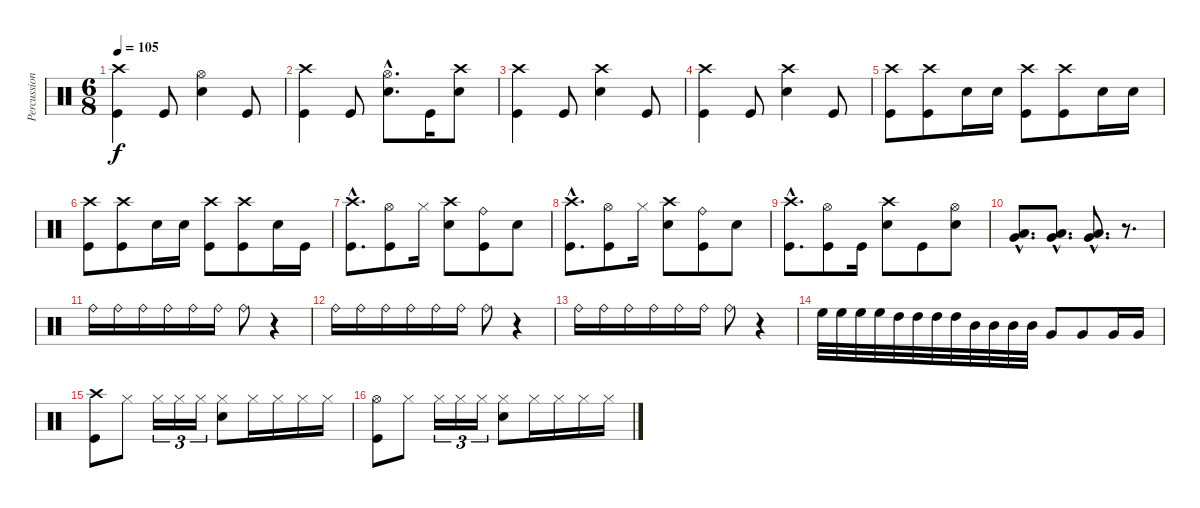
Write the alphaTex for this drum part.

\track ("Percussion" "Percussion") {instrument percussion}
\staff {score}
\articulation defaults
\ts (6 8)
\tempo 105
\clef neutral
\ks c
("Crash high (hit)" "Kick (hit)").4{dy f} "Kick (hit)".8 ("Hi-Hat (open)" "Electric Snare (hit)").4 "Kick (hit)".8 |
("Crash high (hit)" "Kick (hit)").4 "Kick (hit)".8 ("Hi-Hat (open)"{hac} "Electric Snare (hit)"{hac}).8{d} "Kick (hit)".16 ("Crash high (hit)" "Electric Snare (hit)").8 |
("Crash high (hit)" "Kick (hit)").4 "Kick (hit)".8 ("Crash high (hit)" "Electric Snare (hit)").4 "Kick (hit)".8 |
("Crash high (hit)" "Kick (hit)").4 "Kick (hit)".8 ("Crash high (hit)" "Electric Snare (hit)").4 "Kick (hit)".8 |
("Crash high (hit)" "Kick (hit)").8 ("Crash high (hit)" "Kick (hit)").8 "Electric Snare (hit)".16 "Electric Snare (hit)".16 ("Crash high (hit)" "Kick (hit)").8 ("Crash high (hit)" "Kick (hit)").8 "Electric Snare (hit)".16 "Electric Snare (hit)".16 |
("Crash high (hit)" "Kick (hit)").8 ("Crash high (hit)" "Kick (hit)").8 "Electric Snare (hit)".16 "Electric Snare (hit)".16 ("Crash high (hit)" "Kick (hit)").8 ("Crash high (hit)" "Kick (hit)").8 "Electric Snare (hit)".16 "Kick (hit)".16 |
("Crash high (hit)"{hac} "Kick (hit)"{hac}).8{d} ("Hi-Hat (open)" "Kick (hit)").8 "Hi-Hat (closed)".16 ("Crash high (hit)" "Electric Snare (hit)").8 ("Ride (bell)" "Kick (hit)").8 "Electric Snare (hit)".8 |
("Crash high (hit)"{hac} "Kick (hit)"{hac}).8{d} ("Hi-Hat (open)" "Kick (hit)").8 "Hi-Hat (closed)".16 ("Crash high (hit)" "Electric Snare (hit)").8 ("Ride (bell)" "Kick (hit)").8 "Electric Snare (hit)".8 |
("Crash high (hit)"{hac} "Kick (hit)"{hac}).8{d} ("Hi-Hat (open)" "Kick (hit)").8 "Kick (hit)".16 ("Crash high (hit)" "Electric Snare (hit)").8 "Kick (hit)".8 ("Hi-Hat (open)" "Electric Snare (hit)").8 |
("Very Low Tom (hit)"{hac} "Low Floor Tom (hit)"{hac}).8{d} ("Very Low Tom (hit)"{hac} "Low Floor Tom (hit)"{hac}).8{d} ("Very Low Tom (hit)"{hac} "Low Floor Tom (hit)"{hac}).8{d} r.8{d} |
"Ride (bell)".16 "Ride (bell)".16 "Ride (bell)".16 "Ride (bell)".16 "Ride (bell)".16 "Ride (bell)".16 "Ride (bell)".8 r.4 |
"Ride (bell)".16 "Ride (bell)".16 "Ride (bell)".16 "Ride (bell)".16 "Ride (bell)".16 "Ride (bell)".16 "Ride (bell)".8 r.4 |
"Ride (bell)".16 "Ride (bell)".16 "Ride (bell)".16 "Ride (bell)".16 "Ride (bell)".16 "Ride (bell)".16 "Ride (bell)".8 r.4 |
"High Floor Tom (hit)".32 "High Floor Tom (hit)".32 "High Floor Tom (hit)".32 "High Floor Tom (hit)".32 "High Tom (hit)".32 "High Tom (hit)".32 "High Tom (hit)".32 "High Tom (hit)".32 "Mid Tom (hit)".32 "Mid Tom (hit)".32 "Mid Tom (hit)".32 "Mid Tom (hit)".32 "Very Low Tom (hit)".8 "Very Low Tom (hit)".8 "Very Low Tom (hit)".16 "Very Low Tom (hit)".16 |
("Crash high (hit)" "Kick (hit)").8 "Hi-Hat (closed)".8 "Hi-Hat (closed)".16{tu (3 2)} "Hi-Hat (closed)".16{tu (3 2)} "Hi-Hat (closed)".16{tu (3 2)} ("Hi-Hat (closed)" "Electric Snare (hit)").8 "Hi-Hat (closed)".16 "Hi-Hat (closed)".16 "Hi-Hat (closed)".16 "Hi-Hat (closed)".16 |
("Hi-Hat (open)" "Kick (hit)").8 "Hi-Hat (closed)".8 "Hi-Hat (closed)".16{tu (3 2)} "Hi-Hat (closed)".16{tu (3 2)} "Hi-Hat (closed)".16{tu (3 2)} ("Hi-Hat (closed)" "Electric Snare (hit)").8 "Hi-Hat (closed)".16 "Hi-Hat (closed)".16 "Hi-Hat (closed)".16 "Hi-Hat (closed)".16
